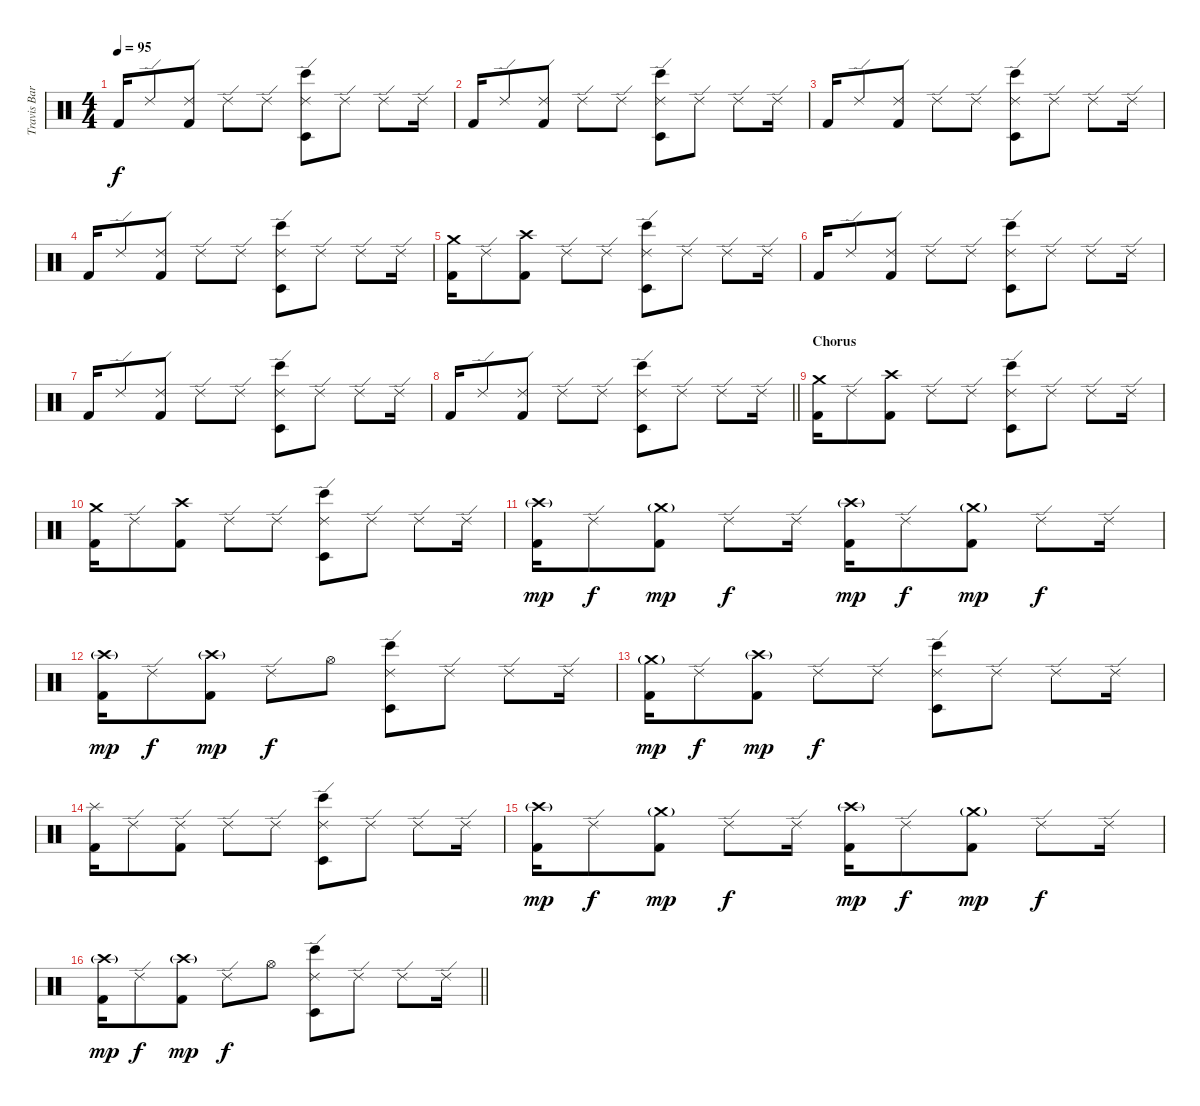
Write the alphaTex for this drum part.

\track ("Travis Barker [Drums]" "Travis Bar") {instrument percussion}
\staff {score}
\articulation defaults
\ts (4 4)
\tempo 95
\clef neutral
\ks c "Kick (hit) 2".16{dy f} "Ride (edge) 2".8
("Ride (edge) 2" "Kick (hit) 2").8 "Ride (edge) 2".8 "Ride (edge) 2".8 ("Ride (edge) 2" "Timbale low (hit)" "Bongo High (hit)").8 "Ride (edge) 2".8 "Ride (edge) 2".8 "Ride (edge) 2".16 |
"Kick (hit) 2".16 "Ride (edge) 2".8 ("Ride (edge) 2" "Kick (hit) 2").8 "Ride (edge) 2".8 "Ride (edge) 2".8 ("Ride (edge) 2" "Timbale low (hit)" "Bongo High (hit)").8 "Ride (edge) 2".8 "Ride (edge) 2".8 "Ride (edge) 2".16 |
"Kick (hit) 2".16 "Ride (edge) 2".8 ("Ride (edge) 2" "Kick (hit) 2").8 "Ride (edge) 2".8 "Ride (edge) 2".8 ("Ride (edge) 2" "Timbale low (hit)" "Bongo High (hit)").8 "Ride (edge) 2".8 "Ride (edge) 2".8 "Ride (edge) 2".16 |
"Kick (hit) 2".16 "Ride (edge) 2".8 ("Ride (edge) 2" "Kick (hit) 2").8 "Ride (edge) 2".8 "Ride (edge) 2".8 ("Ride (edge) 2" "Timbale low (hit)" "Bongo High (hit)").8 "Ride (edge) 2".8 "Ride (edge) 2".8 "Ride (edge) 2".16 |
("Crash medium (hit)" "Kick (hit) 2").16 "Ride (edge) 2".8 ("Crash high (hit)" "Kick (hit) 2").8 "Ride (edge) 2".8 "Ride (edge) 2".8 ("Ride (edge) 2" "Timbale low (hit)" "Bongo High (hit)").8 "Ride (edge) 2".8 "Ride (edge) 2".8 "Ride (edge) 2".16 |
"Kick (hit) 2".16 "Ride (edge) 2".8 ("Ride (edge) 2" "Kick (hit) 2").8 "Ride (edge) 2".8 "Ride (edge) 2".8 ("Ride (edge) 2" "Timbale low (hit)" "Bongo High (hit)").8 "Ride (edge) 2".8 "Ride (edge) 2".8 "Ride (edge) 2".16 |
"Kick (hit) 2".16 "Ride (edge) 2".8 ("Ride (edge) 2" "Kick (hit) 2").8 "Ride (edge) 2".8 "Ride (edge) 2".8 ("Ride (edge) 2" "Timbale low (hit)" "Bongo High (hit)").8 "Ride (edge) 2".8 "Ride (edge) 2".8 "Ride (edge) 2".16 |
\barLineRight lightlight "Kick (hit) 2".16 "Ride (edge) 2".8
("Ride (edge) 2" "Kick (hit) 2").8 "Ride (edge) 2".8 "Ride (edge) 2".8 ("Ride (edge) 2" "Timbale low (hit)" "Bongo High (hit)").8 "Ride (edge) 2".8 "Ride (edge) 2".8 "Ride (edge) 2".16 |
\section ("" "Chorus")
("Crash medium (hit)" "Kick (hit) 2").16 "Ride (edge) 2".8 ("Crash high (hit)" "Kick (hit) 2").8 "Ride (edge) 2".8 "Ride (edge) 2".8 ("Ride (edge) 2" "Timbale low (hit)" "Bongo High (hit)").8 "Ride (edge) 2".8 "Ride (edge) 2".8 "Ride (edge) 2".16 |
("Crash medium (hit)" "Kick (hit) 2").16 "Ride (edge) 2".8 ("Crash high (hit)" "Kick (hit) 2").8 "Ride (edge) 2".8 "Ride (edge) 2".8 ("Ride (edge) 2" "Timbale low (hit)" "Bongo High (hit)").8 "Ride (edge) 2".8 "Ride (edge) 2".8 "Ride (edge) 2".16 |
("Crash high (hit)"{g} "Kick (hit) 2").16{dy mp} "Ride (edge) 2".8{dy f} ("Crash medium (hit)"{g} "Kick (hit) 2").8{dy mp} "Ride (edge) 2".8{dy f} "Ride (edge) 2".16 ("Crash high (hit)"{g} "Kick (hit) 2").16{dy mp} "Ride (edge) 2".8{dy f} ("Crash medium (hit)"{g} "Kick (hit) 2").8{dy mp} "Ride (edge) 2".8{dy f} "Ride (edge) 2".16 |
("Crash high (hit)"{g} "Kick (hit) 2").16{dy mp} "Ride (edge) 2".8{dy f} ("Crash high (hit)"{g} "Kick (hit) 2").8{dy mp} "Ride (edge) 2".8{dy f} "Hi-Hat (open)".8 ("Ride (edge) 2" "Timbale low (hit)" "Bongo High (hit)").8 "Ride (edge) 2".8 "Ride (edge) 2".8 "Ride (edge) 2".16 |
("Crash medium (hit)"{g} "Kick (hit) 2").16{dy mp} "Ride (edge) 2".8{dy f} ("Crash high (hit)"{g} "Kick (hit) 2").8{dy mp} "Ride (edge) 2".8{dy f} "Ride (edge) 2".8 ("Ride (edge) 2" "Timbale low (hit)" "Bongo High (hit)").8 "Ride (edge) 2".8 "Ride (edge) 2".8 "Ride (edge) 2".16 |
("Splash (hit)" "Kick (hit) 2").16 "Ride (edge) 2".8 ("Ride (edge) 2" "Kick (hit) 2").8 "Ride (edge) 2".8 "Ride (edge) 2".8 ("Ride (edge) 2" "Timbale low (hit)" "Bongo High (hit)").8 "Ride (edge) 2".8 "Ride (edge) 2".8 "Ride (edge) 2".16 |
("Crash high (hit)"{g} "Kick (hit) 2").16{dy mp} "Ride (edge) 2".8{dy f} ("Crash medium (hit)"{g} "Kick (hit) 2").8{dy mp} "Ride (edge) 2".8{dy f} "Ride (edge) 2".16 ("Crash high (hit)"{g} "Kick (hit) 2").16{dy mp} "Ride (edge) 2".8{dy f} ("Crash medium (hit)"{g} "Kick (hit) 2").8{dy mp} "Ride (edge) 2".8{dy f} "Ride (edge) 2".16 |
\barLineRight lightlight
("Crash high (hit)"{g} "Kick (hit) 2").16{dy mp} "Ride (edge) 2".8{dy f} ("Crash high (hit)"{g} "Kick (hit) 2").8{dy mp} "Ride (edge) 2".8{dy f} "Hi-Hat (open)".8 ("Ride (edge) 2" "Timbale low (hit)" "Bongo High (hit)").8 "Ride (edge) 2".8 "Ride (edge) 2".8 "Ride (edge) 2".16
